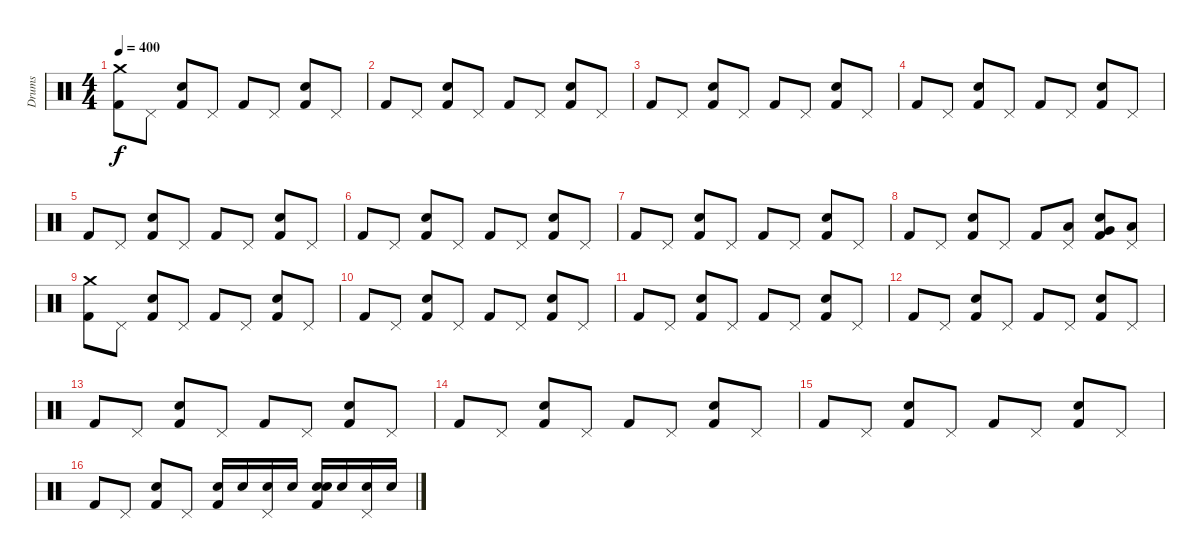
\track ("Drums" "Drums") {instrument percussion}
\staff {score}
\articulation defaults
\ts (4 4)
\tempo 400
\clef neutral
\ks c
("Crash medium (hit)" "Kick (hit) 2").8{dy f} "Pedal Hi-Hat (hit)".8 ("Snare (hit) 2" "Kick (hit) 2").8 "Pedal Hi-Hat (hit)".8 "Kick (hit) 2".8 "Pedal Hi-Hat (hit)".8 ("Snare (hit) 2" "Kick (hit) 2").8 "Pedal Hi-Hat (hit)".8 |
"Kick (hit) 2".8 "Pedal Hi-Hat (hit)".8 ("Snare (hit) 2" "Kick (hit) 2").8 "Pedal Hi-Hat (hit)".8 "Kick (hit) 2".8 "Pedal Hi-Hat (hit)".8 ("Snare (hit) 2" "Kick (hit) 2").8 "Pedal Hi-Hat (hit)".8 |
"Kick (hit) 2".8 "Pedal Hi-Hat (hit)".8 ("Snare (hit) 2" "Kick (hit) 2").8 "Pedal Hi-Hat (hit)".8 "Kick (hit) 2".8 "Pedal Hi-Hat (hit)".8 ("Snare (hit) 2" "Kick (hit) 2").8 "Pedal Hi-Hat (hit)".8 |
"Kick (hit) 2".8 "Pedal Hi-Hat (hit)".8 ("Snare (hit) 2" "Kick (hit) 2").8 "Pedal Hi-Hat (hit)".8 "Kick (hit) 2".8 "Pedal Hi-Hat (hit)".8 ("Snare (hit) 2" "Kick (hit) 2").8 "Pedal Hi-Hat (hit)".8 |
"Kick (hit) 2".8 "Pedal Hi-Hat (hit)".8 ("Snare (hit) 2" "Kick (hit) 2").8 "Pedal Hi-Hat (hit)".8 "Kick (hit) 2".8 "Pedal Hi-Hat (hit)".8 ("Snare (hit) 2" "Kick (hit) 2").8 "Pedal Hi-Hat (hit)".8 |
"Kick (hit) 2".8 "Pedal Hi-Hat (hit)".8 ("Snare (hit) 2" "Kick (hit) 2").8 "Pedal Hi-Hat (hit)".8 "Kick (hit) 2".8 "Pedal Hi-Hat (hit)".8 ("Snare (hit) 2" "Kick (hit) 2").8 "Pedal Hi-Hat (hit)".8 |
"Kick (hit) 2".8 "Pedal Hi-Hat (hit)".8 ("Snare (hit) 2" "Kick (hit) 2").8 "Pedal Hi-Hat (hit)".8 "Kick (hit) 2".8 "Pedal Hi-Hat (hit)".8 ("Snare (hit) 2" "Kick (hit) 2").8 "Pedal Hi-Hat (hit)".8 |
"Kick (hit) 2".8 "Pedal Hi-Hat (hit)".8 ("Snare (hit) 2" "Kick (hit) 2").8 "Pedal Hi-Hat (hit)".8 "Kick (hit) 2".8 ("Low Tom (hit)" "Pedal Hi-Hat (hit)").8 ("Very Low Tom (hit)" "Snare (hit) 2" "Kick (hit) 2").8 ("Pedal Hi-Hat (hit)" "Low Floor Tom (hit)").8 |
("Crash medium (hit)" "Kick (hit) 2").8 "Pedal Hi-Hat (hit)".8 ("Snare (hit) 2" "Kick (hit) 2").8 "Pedal Hi-Hat (hit)".8 "Kick (hit) 2".8 "Pedal Hi-Hat (hit)".8 ("Snare (hit) 2" "Kick (hit) 2").8 "Pedal Hi-Hat (hit)".8 |
"Kick (hit) 2".8 "Pedal Hi-Hat (hit)".8 ("Snare (hit) 2" "Kick (hit) 2").8 "Pedal Hi-Hat (hit)".8 "Kick (hit) 2".8 "Pedal Hi-Hat (hit)".8 ("Snare (hit) 2" "Kick (hit) 2").8 "Pedal Hi-Hat (hit)".8 |
"Kick (hit) 2".8 "Pedal Hi-Hat (hit)".8 ("Snare (hit) 2" "Kick (hit) 2").8 "Pedal Hi-Hat (hit)".8 "Kick (hit) 2".8 "Pedal Hi-Hat (hit)".8 ("Snare (hit) 2" "Kick (hit) 2").8 "Pedal Hi-Hat (hit)".8 |
"Kick (hit) 2".8 "Pedal Hi-Hat (hit)".8 ("Snare (hit) 2" "Kick (hit) 2").8 "Pedal Hi-Hat (hit)".8 "Kick (hit) 2".8 "Pedal Hi-Hat (hit)".8 ("Snare (hit) 2" "Kick (hit) 2").8 "Pedal Hi-Hat (hit)".8 |
"Kick (hit) 2".8 "Pedal Hi-Hat (hit)".8 ("Snare (hit) 2" "Kick (hit) 2").8 "Pedal Hi-Hat (hit)".8 "Kick (hit) 2".8 "Pedal Hi-Hat (hit)".8 ("Snare (hit) 2" "Kick (hit) 2").8 "Pedal Hi-Hat (hit)".8 |
"Kick (hit) 2".8 "Pedal Hi-Hat (hit)".8 ("Snare (hit) 2" "Kick (hit) 2").8 "Pedal Hi-Hat (hit)".8 "Kick (hit) 2".8 "Pedal Hi-Hat (hit)".8 ("Snare (hit) 2" "Kick (hit) 2").8 "Pedal Hi-Hat (hit)".8 |
"Kick (hit) 2".8 "Pedal Hi-Hat (hit)".8 ("Snare (hit) 2" "Kick (hit) 2").8 "Pedal Hi-Hat (hit)".8 "Kick (hit) 2".8 "Pedal Hi-Hat (hit)".8 ("Snare (hit) 2" "Kick (hit) 2").8 "Pedal Hi-Hat (hit)".8 |
"Kick (hit) 2".8 "Pedal Hi-Hat (hit)".8 ("Snare (hit) 2" "Kick (hit) 2").8 "Pedal Hi-Hat (hit)".8 ("Electric Snare (hit)" "Kick (hit) 2").16 "Electric Snare (hit)".16 ("Pedal Hi-Hat (hit)" "Electric Snare (hit)").16 "Electric Snare (hit)".16 ("Electric Snare (hit)" "Snare (hit) 2" "Kick (hit) 2").16 "Electric Snare (hit)".16 ("Pedal Hi-Hat (hit)" "Electric Snare (hit)").16 "Electric Snare (hit)".16
